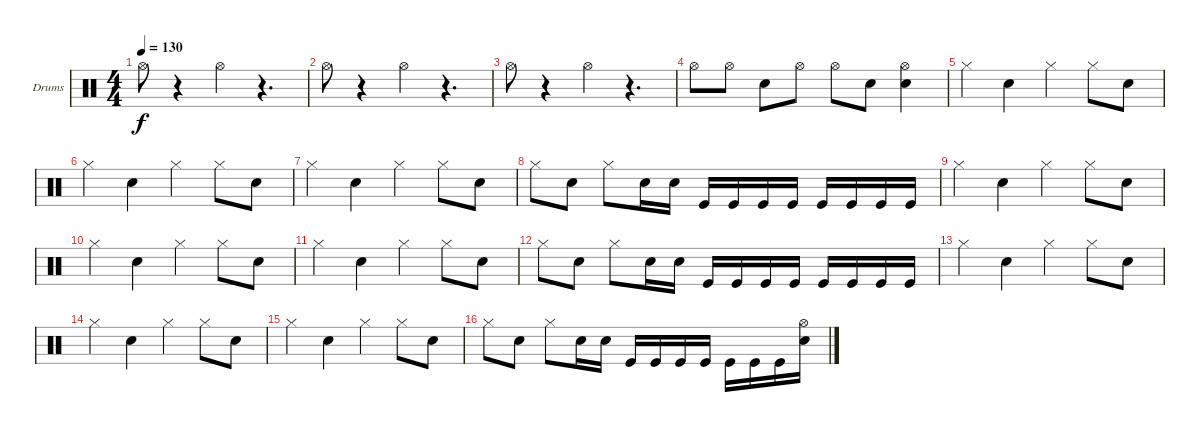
\defaultSystemsLayout 4
\bracketExtendMode groupsimilarinstruments
\firstSystemTrackNameOrientation horizontal
\otherSystemsTrackNameOrientation horizontal
\track ("Drumkit" "Drums") {instrument percussion}
\staff {score}
\articulation defaults
\ts (4 4)
\tempo 130
\clef neutral
\scale
0.322034
\ks c "Hi-Hat (open)".8{dy f}
r.4 "Hi-Hat (open)".4 r.4{d} |
\scale
0.333333 "Hi-Hat (open)".8 r.4 "Hi-Hat (open)".4 r.4{d} |
\scale
0.333333 "Hi-Hat (open)".8 r.4 "Hi-Hat (open)".4 r.4{d} |
\scale
0.333333 "Hi-Hat (open)".8 "Hi-Hat (open)".8 "Snare (hit) 2".8 "Hi-Hat (open)".8 "Hi-Hat (open)".8 "Snare (hit) 2".8 ("Snare (hit) 2" "Hi-Hat (open)").4 |
\scale
0.333333 "Hi-Hat (closed)".4 "Snare (hit) 2".4 "Hi-Hat (closed)".4 "Hi-Hat (closed)".8 "Snare (hit) 2".8 |
\scale
0.333333 "Hi-Hat (closed)".4 "Snare (hit) 2".4 "Hi-Hat (closed)".4 "Hi-Hat (closed)".8 "Snare (hit) 2".8 |
\scale
0.333333 "Hi-Hat (closed)".4 "Snare (hit) 2".4 "Hi-Hat (closed)".4 "Hi-Hat (closed)".8 "Snare (hit) 2".8 |
"Hi-Hat (closed)".8 "Snare (hit) 2".8 "Hi-Hat (closed)".8 "Snare (hit) 2".16 "Snare (hit) 2".16 "Kick (hit)".16 "Kick (hit)".16 "Kick (hit)".16 "Kick (hit)".16 "Kick (hit)".16 "Kick (hit)".16 "Kick (hit)".16 "Kick (hit)".16 |
"Hi-Hat (closed)".4 "Snare (hit) 2".4 "Hi-Hat (closed)".4 "Hi-Hat (closed)".8 "Snare (hit) 2".8 |
"Hi-Hat (closed)".4 "Snare (hit) 2".4 "Hi-Hat (closed)".4 "Hi-Hat (closed)".8 "Snare (hit) 2".8 |
"Hi-Hat (closed)".4 "Snare (hit) 2".4 "Hi-Hat (closed)".4 "Hi-Hat (closed)".8 "Snare (hit) 2".8 |
"Hi-Hat (closed)".8 "Snare (hit) 2".8 "Hi-Hat (closed)".8 "Snare (hit) 2".16 "Snare (hit) 2".16 "Kick (hit)".16 "Kick (hit)".16 "Kick (hit)".16 "Kick (hit)".16 "Kick (hit)".16 "Kick (hit)".16 "Kick (hit)".16 "Kick (hit)".16 |
"Hi-Hat (closed)".4 "Snare (hit) 2".4 "Hi-Hat (closed)".4 "Hi-Hat (closed)".8 "Snare (hit) 2".8 |
"Hi-Hat (closed)".4 "Snare (hit) 2".4 "Hi-Hat (closed)".4 "Hi-Hat (closed)".8 "Snare (hit) 2".8 |
"Hi-Hat (closed)".4 "Snare (hit) 2".4 "Hi-Hat (closed)".4 "Hi-Hat (closed)".8 "Snare (hit) 2".8 |
"Hi-Hat (closed)".8 "Snare (hit) 2".8 "Hi-Hat (closed)".8 "Snare (hit) 2".16 "Snare (hit) 2".16 "Kick (hit)".16 "Kick (hit)".16 "Kick (hit)".16 "Kick (hit)".16 "Kick (hit)".16 "Kick (hit)".16 "Kick (hit)".16 ("Snare (hit) 2" "Hi-Hat (open)").16
